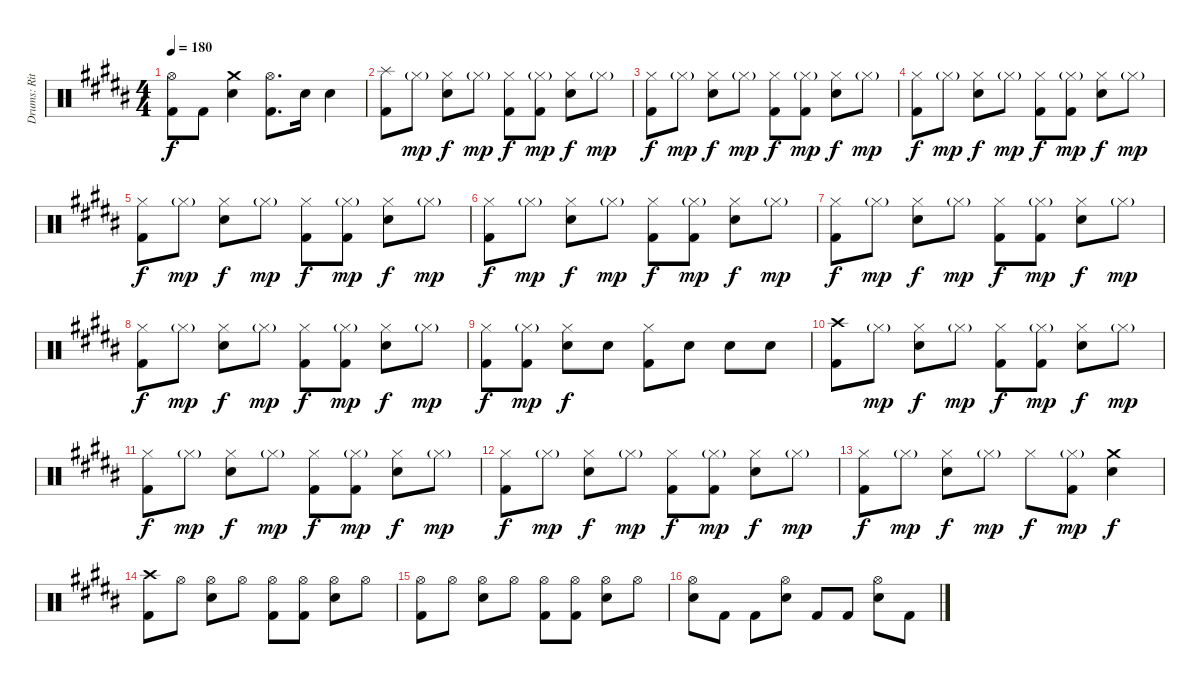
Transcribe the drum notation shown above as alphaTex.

\track ("Drums: Ritsu " "Drums: Rit") {instrument percussion}
\staff {score}
\articulation defaults
\ts (4 4)
\tempo 180
\clef neutral
\ks b
("Hi-Hat (open)" "Kick (hit) 2").8{dy f} "Kick (hit) 2".8 ("Crash medium (hit)" "Electric Snare (hit)").4 ("Hi-Hat (open)" "Kick (hit) 2").8{d} "Electric Snare (hit)".16 "Electric Snare (hit)".4 |
("Splash (hit)" "Kick (hit) 2").8 "Hi-Hat (closed)"{g}.8{dy mp} ("Hi-Hat (closed)" "Electric Snare (hit)").8{dy f} "Hi-Hat (closed)"{g}.8{dy mp} ("Hi-Hat (closed)" "Kick (hit) 2").8{dy f} ("Hi-Hat (closed)"{g} "Kick (hit) 2").8{dy mp} ("Hi-Hat (closed)" "Electric Snare (hit)").8{dy f} "Hi-Hat (closed)"{g}.8{dy mp} |
("Hi-Hat (closed)" "Kick (hit) 2").8{dy f} "Hi-Hat (closed)"{g}.8{dy mp} ("Hi-Hat (closed)" "Electric Snare (hit)").8{dy f} "Hi-Hat (closed)"{g}.8{dy mp} ("Hi-Hat (closed)" "Kick (hit) 2").8{dy f} ("Hi-Hat (closed)"{g} "Kick (hit) 2").8{dy mp} ("Hi-Hat (closed)" "Electric Snare (hit)").8{dy f} "Hi-Hat (closed)"{g}.8{dy mp} |
("Hi-Hat (closed)" "Kick (hit) 2").8{dy f} "Hi-Hat (closed)"{g}.8{dy mp} ("Hi-Hat (closed)" "Electric Snare (hit)").8{dy f} "Hi-Hat (closed)"{g}.8{dy mp} ("Hi-Hat (closed)" "Kick (hit) 2").8{dy f} ("Hi-Hat (closed)"{g} "Kick (hit) 2").8{dy mp} ("Hi-Hat (closed)" "Electric Snare (hit)").8{dy f} "Hi-Hat (closed)"{g}.8{dy mp} |
("Hi-Hat (closed)" "Kick (hit) 2").8{dy f} "Hi-Hat (closed)"{g}.8{dy mp} ("Hi-Hat (closed)" "Electric Snare (hit)").8{dy f} "Hi-Hat (closed)"{g}.8{dy mp} ("Hi-Hat (closed)" "Kick (hit) 2").8{dy f} ("Hi-Hat (closed)"{g} "Kick (hit) 2").8{dy mp} ("Hi-Hat (closed)" "Electric Snare (hit)").8{dy f} "Hi-Hat (closed)"{g}.8{dy mp} |
("Hi-Hat (closed)" "Kick (hit) 2").8{dy f} "Hi-Hat (closed)"{g}.8{dy mp} ("Hi-Hat (closed)" "Electric Snare (hit)").8{dy f} "Hi-Hat (closed)"{g}.8{dy mp} ("Hi-Hat (closed)" "Kick (hit) 2").8{dy f} ("Hi-Hat (closed)"{g} "Kick (hit) 2").8{dy mp} ("Hi-Hat (closed)" "Electric Snare (hit)").8{dy f} "Hi-Hat (closed)"{g}.8{dy mp} |
("Hi-Hat (closed)" "Kick (hit) 2").8{dy f} "Hi-Hat (closed)"{g}.8{dy mp} ("Hi-Hat (closed)" "Electric Snare (hit)").8{dy f} "Hi-Hat (closed)"{g}.8{dy mp} ("Hi-Hat (closed)" "Kick (hit) 2").8{dy f} ("Hi-Hat (closed)"{g} "Kick (hit) 2").8{dy mp} ("Hi-Hat (closed)" "Electric Snare (hit)").8{dy f} "Hi-Hat (closed)"{g}.8{dy mp} |
("Hi-Hat (closed)" "Kick (hit) 2").8{dy f} "Hi-Hat (closed)"{g}.8{dy mp} ("Hi-Hat (closed)" "Electric Snare (hit)").8{dy f} "Hi-Hat (closed)"{g}.8{dy mp} ("Hi-Hat (closed)" "Kick (hit) 2").8{dy f} ("Hi-Hat (closed)"{g} "Kick (hit) 2").8{dy mp} ("Hi-Hat (closed)" "Electric Snare (hit)").8{dy f} "Hi-Hat (closed)"{g}.8{dy mp} |
("Hi-Hat (closed)" "Kick (hit) 2").8{dy f} ("Hi-Hat (closed)"{g} "Kick (hit) 2").8{dy mp} ("Hi-Hat (closed)" "Electric Snare (hit)").8{dy f} "Electric Snare (hit)".8 ("Hi-Hat (closed)" "Kick (hit) 2").8 "Electric Snare (hit)".8 "Electric Snare (hit)".8 "Electric Snare (hit)".8 |
("Crash high (hit)" "Kick (hit) 2").8 "Hi-Hat (closed)"{g}.8{dy mp} ("Hi-Hat (closed)" "Electric Snare (hit)").8{dy f} "Hi-Hat (closed)"{g}.8{dy mp} ("Hi-Hat (closed)" "Kick (hit) 2").8{dy f} ("Hi-Hat (closed)"{g} "Kick (hit) 2").8{dy mp} ("Hi-Hat (closed)" "Electric Snare (hit)").8{dy f} "Hi-Hat (closed)"{g}.8{dy mp} |
("Hi-Hat (closed)" "Kick (hit) 2").8{dy f} "Hi-Hat (closed)"{g}.8{dy mp} ("Hi-Hat (closed)" "Electric Snare (hit)").8{dy f} "Hi-Hat (closed)"{g}.8{dy mp} ("Hi-Hat (closed)" "Kick (hit) 2").8{dy f} ("Hi-Hat (closed)"{g} "Kick (hit) 2").8{dy mp} ("Hi-Hat (closed)" "Electric Snare (hit)").8{dy f} "Hi-Hat (closed)"{g}.8{dy mp} |
("Hi-Hat (closed)" "Kick (hit) 2").8{dy f} "Hi-Hat (closed)"{g}.8{dy mp} ("Hi-Hat (closed)" "Electric Snare (hit)").8{dy f} "Hi-Hat (closed)"{g}.8{dy mp} ("Hi-Hat (closed)" "Kick (hit) 2").8{dy f} ("Hi-Hat (closed)"{g} "Kick (hit) 2").8{dy mp} ("Hi-Hat (closed)" "Electric Snare (hit)").8{dy f} "Hi-Hat (closed)"{g}.8{dy mp} |
("Hi-Hat (closed)" "Kick (hit) 2").8{dy f} "Hi-Hat (closed)"{g}.8{dy mp} ("Hi-Hat (closed)" "Electric Snare (hit)").8{dy f} "Hi-Hat (closed)"{g}.8{dy mp} "Hi-Hat (closed)".8{dy f} ("Hi-Hat (closed)"{g} "Kick (hit) 2").8{dy mp} ("Crash medium (hit)" "Electric Snare (hit)").4{dy f} |
("Crash high (hit)" "Kick (hit) 2").8 "Hi-Hat (open)".8 ("Hi-Hat (open)" "Electric Snare (hit)").8 "Hi-Hat (open)".8 ("Hi-Hat (open)" "Kick (hit) 2").8 ("Hi-Hat (open)" "Kick (hit) 2").8 ("Hi-Hat (open)" "Electric Snare (hit)").8 "Hi-Hat (open)".8 |
("Hi-Hat (open)" "Kick (hit) 2").8 "Hi-Hat (open)".8 ("Hi-Hat (open)" "Electric Snare (hit)").8 "Hi-Hat (open)".8 ("Hi-Hat (open)" "Kick (hit) 2").8 ("Hi-Hat (open)" "Kick (hit) 2").8 ("Hi-Hat (open)" "Electric Snare (hit)").8 "Hi-Hat (open)".8 |
("Hi-Hat (open)" "Electric Snare (hit)").8 "Kick (hit) 2".8 "Kick (hit) 2".8 ("Hi-Hat (open)" "Electric Snare (hit)").8 "Kick (hit) 2".8 "Kick (hit) 2".8 ("Hi-Hat (open)" "Electric Snare (hit)").8 "Kick (hit) 2".8
